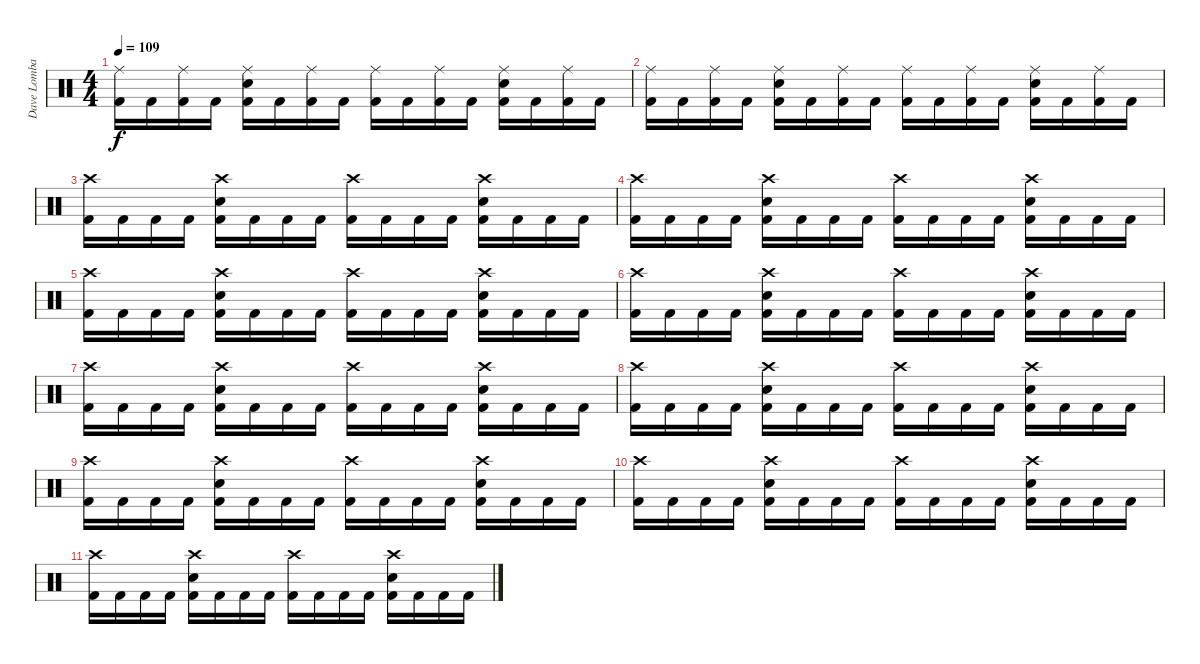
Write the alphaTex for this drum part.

\track ("Dave Lombardo" "Dave Lomba") {instrument percussion}
\staff {score}
\articulation defaults
\ts (4 4)
\tempo 109
\clef neutral
\ks c
("Ride (middle)" "Kick (hit) 2").16{dy f} "Kick (hit) 2".16 ("Ride (middle)" "Kick (hit) 2").16 "Kick (hit) 2".16 ("Ride (middle)" "Electric Snare (hit)" "Kick (hit) 2").16 "Kick (hit) 2".16 ("Ride (middle)" "Kick (hit) 2").16 "Kick (hit) 2".16 ("Ride (middle)" "Kick (hit) 2").16 "Kick (hit) 2".16 ("Ride (middle)" "Kick (hit) 2").16 "Kick (hit) 2".16 ("Ride (middle)" "Electric Snare (hit)" "Kick (hit) 2").16 "Kick (hit) 2".16 ("Ride (middle)" "Kick (hit) 2").16 "Kick (hit) 2".16 |
("Ride (middle)" "Kick (hit) 2").16 "Kick (hit) 2".16 ("Ride (middle)" "Kick (hit) 2").16 "Kick (hit) 2".16 ("Ride (middle)" "Electric Snare (hit)" "Kick (hit) 2").16 "Kick (hit) 2".16 ("Ride (middle)" "Kick (hit) 2").16 "Kick (hit) 2".16 ("Ride (middle)" "Kick (hit) 2").16 "Kick (hit) 2".16 ("Ride (middle)" "Kick (hit) 2").16 "Kick (hit) 2".16 ("Ride (middle)" "Electric Snare (hit)" "Kick (hit) 2").16 "Kick (hit) 2".16 ("Ride (middle)" "Kick (hit) 2").16 "Kick (hit) 2".16 |
("Crash high (hit)" "Kick (hit) 2").16 "Kick (hit) 2".16 "Kick (hit) 2".16 "Kick (hit) 2".16 ("Crash high (hit)" "Electric Snare (hit)" "Kick (hit) 2").16 "Kick (hit) 2".16 "Kick (hit) 2".16 "Kick (hit) 2".16 ("Crash high (hit)" "Kick (hit) 2").16 "Kick (hit) 2".16 "Kick (hit) 2".16 "Kick (hit) 2".16 ("Crash high (hit)" "Electric Snare (hit)" "Kick (hit) 2").16 "Kick (hit) 2".16 "Kick (hit) 2".16 "Kick (hit) 2".16 |
("Crash high (hit)" "Kick (hit) 2").16 "Kick (hit) 2".16 "Kick (hit) 2".16 "Kick (hit) 2".16 ("Crash high (hit)" "Electric Snare (hit)" "Kick (hit) 2").16 "Kick (hit) 2".16 "Kick (hit) 2".16 "Kick (hit) 2".16 ("Crash high (hit)" "Kick (hit) 2").16 "Kick (hit) 2".16 "Kick (hit) 2".16 "Kick (hit) 2".16 ("Crash high (hit)" "Electric Snare (hit)" "Kick (hit) 2").16 "Kick (hit) 2".16 "Kick (hit) 2".16 "Kick (hit) 2".16 |
("Crash high (hit)" "Kick (hit) 2").16 "Kick (hit) 2".16 "Kick (hit) 2".16 "Kick (hit) 2".16 ("Crash high (hit)" "Electric Snare (hit)" "Kick (hit) 2").16 "Kick (hit) 2".16 "Kick (hit) 2".16 "Kick (hit) 2".16 ("Crash high (hit)" "Kick (hit) 2").16 "Kick (hit) 2".16 "Kick (hit) 2".16 "Kick (hit) 2".16 ("Crash high (hit)" "Electric Snare (hit)" "Kick (hit) 2").16 "Kick (hit) 2".16 "Kick (hit) 2".16 "Kick (hit) 2".16 |
("Crash high (hit)" "Kick (hit) 2").16 "Kick (hit) 2".16 "Kick (hit) 2".16 "Kick (hit) 2".16 ("Crash high (hit)" "Electric Snare (hit)" "Kick (hit) 2").16 "Kick (hit) 2".16 "Kick (hit) 2".16 "Kick (hit) 2".16 ("Crash high (hit)" "Kick (hit) 2").16 "Kick (hit) 2".16 "Kick (hit) 2".16 "Kick (hit) 2".16 ("Crash high (hit)" "Electric Snare (hit)" "Kick (hit) 2").16 "Kick (hit) 2".16 "Kick (hit) 2".16 "Kick (hit) 2".16 |
("Crash high (hit)" "Kick (hit) 2").16 "Kick (hit) 2".16 "Kick (hit) 2".16 "Kick (hit) 2".16 ("Crash high (hit)" "Electric Snare (hit)" "Kick (hit) 2").16 "Kick (hit) 2".16 "Kick (hit) 2".16 "Kick (hit) 2".16 ("Crash high (hit)" "Kick (hit) 2").16 "Kick (hit) 2".16 "Kick (hit) 2".16 "Kick (hit) 2".16 ("Crash high (hit)" "Electric Snare (hit)" "Kick (hit) 2").16 "Kick (hit) 2".16 "Kick (hit) 2".16 "Kick (hit) 2".16 |
("Crash high (hit)" "Kick (hit) 2").16 "Kick (hit) 2".16 "Kick (hit) 2".16 "Kick (hit) 2".16 ("Crash high (hit)" "Electric Snare (hit)" "Kick (hit) 2").16 "Kick (hit) 2".16 "Kick (hit) 2".16 "Kick (hit) 2".16 ("Crash high (hit)" "Kick (hit) 2").16 "Kick (hit) 2".16 "Kick (hit) 2".16 "Kick (hit) 2".16 ("Crash high (hit)" "Electric Snare (hit)" "Kick (hit) 2").16 "Kick (hit) 2".16 "Kick (hit) 2".16 "Kick (hit) 2".16 |
("Crash high (hit)" "Kick (hit) 2").16 "Kick (hit) 2".16 "Kick (hit) 2".16 "Kick (hit) 2".16 ("Crash high (hit)" "Electric Snare (hit)" "Kick (hit) 2").16 "Kick (hit) 2".16 "Kick (hit) 2".16 "Kick (hit) 2".16 ("Crash high (hit)" "Kick (hit) 2").16 "Kick (hit) 2".16 "Kick (hit) 2".16 "Kick (hit) 2".16 ("Crash high (hit)" "Electric Snare (hit)" "Kick (hit) 2").16 "Kick (hit) 2".16 "Kick (hit) 2".16 "Kick (hit) 2".16 |
("Crash high (hit)" "Kick (hit) 2").16 "Kick (hit) 2".16 "Kick (hit) 2".16 "Kick (hit) 2".16 ("Crash high (hit)" "Electric Snare (hit)" "Kick (hit) 2").16 "Kick (hit) 2".16 "Kick (hit) 2".16 "Kick (hit) 2".16 ("Crash high (hit)" "Kick (hit) 2").16 "Kick (hit) 2".16 "Kick (hit) 2".16 "Kick (hit) 2".16 ("Crash high (hit)" "Electric Snare (hit)" "Kick (hit) 2").16 "Kick (hit) 2".16 "Kick (hit) 2".16 "Kick (hit) 2".16 |
("Crash high (hit)" "Kick (hit) 2").16 "Kick (hit) 2".16 "Kick (hit) 2".16 "Kick (hit) 2".16 ("Crash high (hit)" "Electric Snare (hit)" "Kick (hit) 2").16 "Kick (hit) 2".16 "Kick (hit) 2".16 "Kick (hit) 2".16 ("Crash high (hit)" "Kick (hit) 2").16 "Kick (hit) 2".16 "Kick (hit) 2".16 "Kick (hit) 2".16 ("Crash high (hit)" "Electric Snare (hit)" "Kick (hit) 2").16 "Kick (hit) 2".16 "Kick (hit) 2".16 "Kick (hit) 2".16
